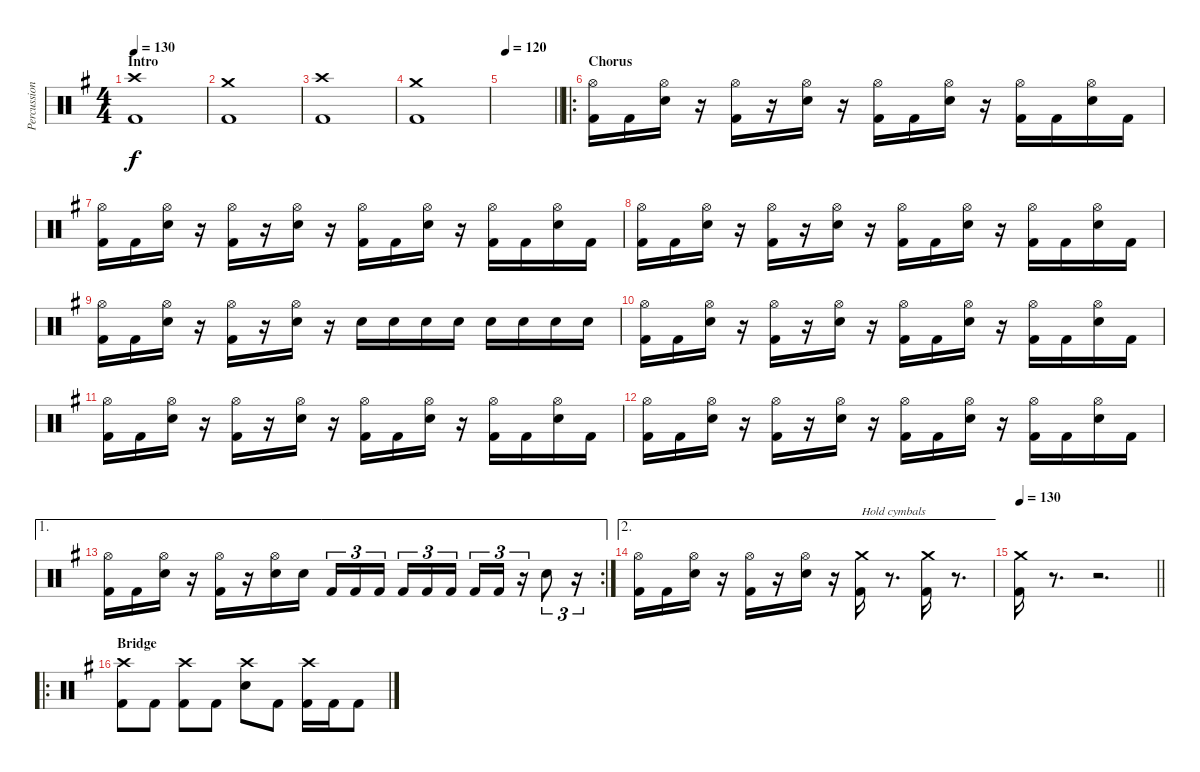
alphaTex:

\track ("Percussion" "Percussion") {instrument percussion}
\staff {score}
\articulation defaults
\ts (4 4)
\section ("" "Intro")
\tempo 130
\clef neutral
\ks g
("Crash high (hit)" "Kick (hit) 2").1{dy f} |
("Crash medium (hit)" "Kick (hit) 2").1 |
("Crash high (hit)" "Kick (hit) 2").1 |
("Crash medium (hit)" "Kick (hit) 2").1 |
\tempo (120 0.0625)
\barLineRight lightlight
|
\ro
\section ("" "Chorus")
("Hi-Hat (open)" "Kick (hit) 2").16 "Kick (hit) 2".16 ("Hi-Hat (open)" "Snare (hit) 2").16 r.16 ("Hi-Hat (open)" "Kick (hit) 2").16 r.16 ("Hi-Hat (open)" "Snare (hit) 2").16 r.16 ("Hi-Hat (open)" "Kick (hit) 2").16 "Kick (hit) 2".16 ("Hi-Hat (open)" "Snare (hit) 2").16 r.16 ("Hi-Hat (open)" "Kick (hit) 2").16 "Kick (hit) 2".16 ("Hi-Hat (open)" "Snare (hit) 2").16 "Kick (hit) 2".16 |
("Hi-Hat (open)" "Kick (hit) 2").16 "Kick (hit) 2".16 ("Hi-Hat (open)" "Snare (hit) 2").16 r.16 ("Hi-Hat (open)" "Kick (hit) 2").16 r.16 ("Hi-Hat (open)" "Snare (hit) 2").16 r.16 ("Hi-Hat (open)" "Kick (hit) 2").16 "Kick (hit) 2".16 ("Hi-Hat (open)" "Snare (hit) 2").16 r.16 ("Hi-Hat (open)" "Kick (hit) 2").16 "Kick (hit) 2".16 ("Hi-Hat (open)" "Snare (hit) 2").16 "Kick (hit) 2".16 |
("Hi-Hat (open)" "Kick (hit) 2").16 "Kick (hit) 2".16 ("Hi-Hat (open)" "Snare (hit) 2").16 r.16 ("Hi-Hat (open)" "Kick (hit) 2").16 r.16 ("Hi-Hat (open)" "Snare (hit) 2").16 r.16 ("Hi-Hat (open)" "Kick (hit) 2").16 "Kick (hit) 2".16 ("Hi-Hat (open)" "Snare (hit) 2").16 r.16 ("Hi-Hat (open)" "Kick (hit) 2").16 "Kick (hit) 2".16 ("Hi-Hat (open)" "Snare (hit) 2").16 "Kick (hit) 2".16 |
("Hi-Hat (open)" "Kick (hit) 2").16 "Kick (hit) 2".16 ("Hi-Hat (open)" "Snare (hit) 2").16 r.16 ("Hi-Hat (open)" "Kick (hit) 2").16 r.16 ("Hi-Hat (open)" "Snare (hit) 2").16 r.16 "Snare (hit) 2".16 "Snare (hit) 2".16 "Snare (hit) 2".16 "Snare (hit) 2".16 "Snare (hit) 2".16 "Snare (hit) 2".16 "Snare (hit) 2".16 "Snare (hit) 2".16 |
("Hi-Hat (open)" "Kick (hit) 2").16 "Kick (hit) 2".16 ("Hi-Hat (open)" "Snare (hit) 2").16 r.16 ("Hi-Hat (open)" "Kick (hit) 2").16 r.16 ("Hi-Hat (open)" "Snare (hit) 2").16 r.16 ("Hi-Hat (open)" "Kick (hit) 2").16 "Kick (hit) 2".16 ("Hi-Hat (open)" "Snare (hit) 2").16 r.16 ("Hi-Hat (open)" "Kick (hit) 2").16 "Kick (hit) 2".16 ("Hi-Hat (open)" "Snare (hit) 2").16 "Kick (hit) 2".16 |
("Hi-Hat (open)" "Kick (hit) 2").16 "Kick (hit) 2".16 ("Hi-Hat (open)" "Snare (hit) 2").16 r.16 ("Hi-Hat (open)" "Kick (hit) 2").16 r.16 ("Hi-Hat (open)" "Snare (hit) 2").16 r.16 ("Hi-Hat (open)" "Kick (hit) 2").16 "Kick (hit) 2".16 ("Hi-Hat (open)" "Snare (hit) 2").16 r.16 ("Hi-Hat (open)" "Kick (hit) 2").16 "Kick (hit) 2".16 ("Hi-Hat (open)" "Snare (hit) 2").16 "Kick (hit) 2".16 |
("Hi-Hat (open)" "Kick (hit) 2").16 "Kick (hit) 2".16 ("Hi-Hat (open)" "Snare (hit) 2").16 r.16 ("Hi-Hat (open)" "Kick (hit) 2").16 r.16 ("Hi-Hat (open)" "Snare (hit) 2").16 r.16 ("Hi-Hat (open)" "Kick (hit) 2").16 "Kick (hit) 2".16 ("Hi-Hat (open)" "Snare (hit) 2").16 r.16 ("Hi-Hat (open)" "Kick (hit) 2").16 "Kick (hit) 2".16 ("Hi-Hat (open)" "Snare (hit) 2").16 "Kick (hit) 2".16 |
\ae 1
\rc 2
("Hi-Hat (open)" "Kick (hit) 2").16 "Kick (hit) 2".16 ("Hi-Hat (open)" "Snare (hit) 2").16 r.16 ("Hi-Hat (open)" "Kick (hit) 2").16 r.16 ("Hi-Hat (open)" "Snare (hit) 2").16 "Snare (hit) 2".16 "Kick (hit) 2".16{tu (3 2)} "Kick (hit) 2".16{tu (3 2)} "Kick (hit) 2".16{tu (3 2)} "Kick (hit) 2".16{tu (3 2)} "Kick (hit) 2".16{tu (3 2)} "Kick (hit) 2".16{tu (3 2)} "Kick (hit) 2".16{tu (3 2)} "Kick (hit) 2".16{tu (3 2)} r.16{tu (3 2)} "Snare (hit) 2".8{tu (3 2)} r.16{tu (3 2)} |
\ae 2
("Hi-Hat (open)" "Kick (hit) 2").16 "Kick (hit) 2".16 ("Hi-Hat (open)" "Snare (hit) 2").16 r.16 ("Hi-Hat (open)" "Kick (hit) 2").16 r.16 ("Hi-Hat (open)" "Snare (hit) 2").16 r.16 ("Crash medium (hit)" "Kick (hit) 2").16{txt "Hold cymbals"} r.8{d} ("Crash medium (hit)" "Kick (hit) 2").16 r.8{d} |
\tempo 130
\barLineRight lightlight
("Crash medium (hit)" "Kick (hit) 2").16 r.8{d} r.2{d} |
\ro
\section ("" "Bridge")
("Crash high (hit)" "Kick (hit) 2").8 "Kick (hit) 2".8 ("Crash high (hit)" "Kick (hit) 2").8 "Kick (hit) 2".8 ("Crash high (hit)" "Snare (hit) 2").8 "Kick (hit) 2".8 ("Crash high (hit)" "Kick (hit) 2").16 "Kick (hit) 2".16 "Kick (hit) 2".8
